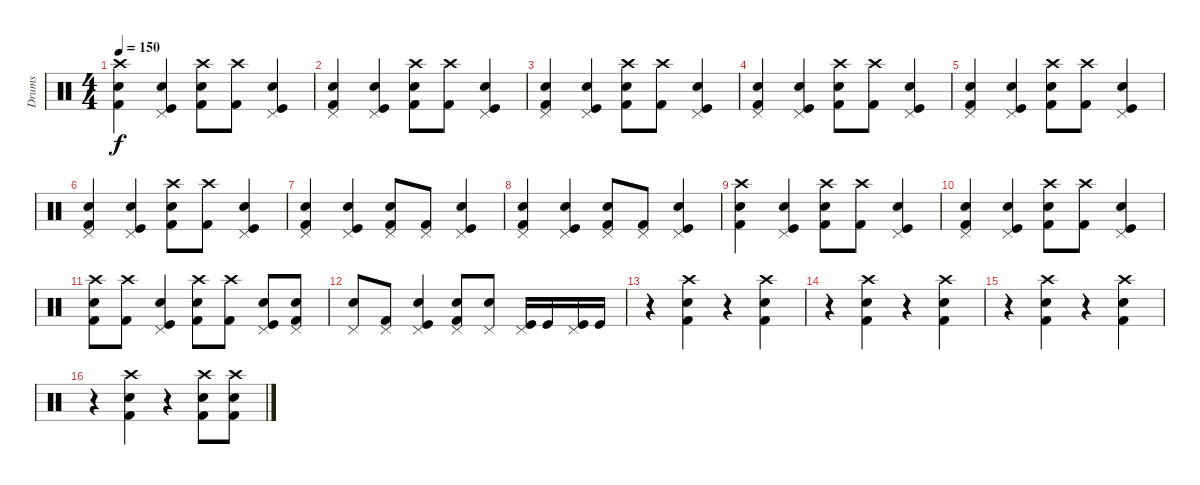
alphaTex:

\track ("Drums" "Drums") {instrument percussion}
\staff {score}
\articulation defaults
\ts (4 4)
\tempo 150
\clef neutral
\ks c
("Kick (hit) 2" "Electric Snare (hit)" "Crash high (hit)").4{dy f} ("Kick (hit)" "Electric Snare (hit)" "Pedal Hi-Hat (hit)").4 ("Kick (hit) 2" "Electric Snare (hit)" "Crash high (hit)").8 ("Kick (hit) 2" "Crash high (hit)").8 ("Kick (hit)" "Electric Snare (hit)" "Pedal Hi-Hat (hit)").4 |
("Kick (hit) 2" "Electric Snare (hit)" "Pedal Hi-Hat (hit)").4 ("Kick (hit)" "Electric Snare (hit)" "Pedal Hi-Hat (hit)").4 ("Kick (hit) 2" "Electric Snare (hit)" "Crash high (hit)").8 ("Kick (hit) 2" "Crash high (hit)").8 ("Kick (hit)" "Electric Snare (hit)" "Pedal Hi-Hat (hit)").4 |
("Kick (hit) 2" "Electric Snare (hit)" "Pedal Hi-Hat (hit)").4 ("Kick (hit)" "Electric Snare (hit)" "Pedal Hi-Hat (hit)").4 ("Kick (hit) 2" "Electric Snare (hit)" "Crash high (hit)").8 ("Kick (hit) 2" "Crash high (hit)").8 ("Kick (hit)" "Electric Snare (hit)" "Pedal Hi-Hat (hit)").4 |
("Kick (hit) 2" "Electric Snare (hit)" "Pedal Hi-Hat (hit)").4 ("Kick (hit)" "Electric Snare (hit)" "Pedal Hi-Hat (hit)").4 ("Kick (hit) 2" "Electric Snare (hit)" "Crash high (hit)").8 ("Kick (hit) 2" "Crash high (hit)").8 ("Kick (hit)" "Electric Snare (hit)" "Pedal Hi-Hat (hit)").4 |
("Kick (hit) 2" "Electric Snare (hit)" "Pedal Hi-Hat (hit)").4 ("Kick (hit)" "Electric Snare (hit)" "Pedal Hi-Hat (hit)").4 ("Kick (hit) 2" "Electric Snare (hit)" "Crash high (hit)").8 ("Kick (hit) 2" "Crash high (hit)").8 ("Kick (hit)" "Electric Snare (hit)" "Pedal Hi-Hat (hit)").4 |
("Kick (hit) 2" "Electric Snare (hit)" "Pedal Hi-Hat (hit)").4 ("Kick (hit)" "Electric Snare (hit)" "Pedal Hi-Hat (hit)").4 ("Kick (hit) 2" "Electric Snare (hit)" "Crash high (hit)").8 ("Kick (hit) 2" "Crash high (hit)").8 ("Kick (hit)" "Electric Snare (hit)" "Pedal Hi-Hat (hit)").4 |
("Kick (hit) 2" "Electric Snare (hit)" "Pedal Hi-Hat (hit)").4 ("Kick (hit)" "Electric Snare (hit)" "Pedal Hi-Hat (hit)").4 ("Kick (hit) 2" "Electric Snare (hit)" "Pedal Hi-Hat (hit)").8 ("Kick (hit) 2" "Pedal Hi-Hat (hit)").8 ("Kick (hit)" "Electric Snare (hit)" "Pedal Hi-Hat (hit)").4 |
("Kick (hit) 2" "Electric Snare (hit)" "Pedal Hi-Hat (hit)").4 ("Kick (hit)" "Electric Snare (hit)" "Pedal Hi-Hat (hit)").4 ("Kick (hit) 2" "Electric Snare (hit)" "Pedal Hi-Hat (hit)").8 ("Kick (hit) 2" "Pedal Hi-Hat (hit)").8 ("Kick (hit)" "Electric Snare (hit)" "Pedal Hi-Hat (hit)").4 |
("Kick (hit) 2" "Electric Snare (hit)" "Crash high (hit)").4 ("Kick (hit)" "Electric Snare (hit)" "Pedal Hi-Hat (hit)").4 ("Kick (hit) 2" "Electric Snare (hit)" "Crash high (hit)").8 ("Kick (hit) 2" "Crash high (hit)").8 ("Kick (hit)" "Electric Snare (hit)" "Pedal Hi-Hat (hit)").4 |
("Kick (hit) 2" "Electric Snare (hit)" "Pedal Hi-Hat (hit)").4 ("Kick (hit)" "Electric Snare (hit)" "Pedal Hi-Hat (hit)").4 ("Kick (hit) 2" "Electric Snare (hit)" "Crash high (hit)").8 ("Kick (hit) 2" "Crash high (hit)").8 ("Kick (hit)" "Electric Snare (hit)" "Pedal Hi-Hat (hit)").4 |
("Kick (hit) 2" "Electric Snare (hit)" "Crash high (hit)").8 ("Kick (hit) 2" "Crash high (hit)").8 ("Kick (hit)" "Electric Snare (hit)" "Pedal Hi-Hat (hit)").4 ("Kick (hit) 2" "Electric Snare (hit)" "Crash high (hit)").8 ("Kick (hit) 2" "Crash high (hit)").8 ("Kick (hit)" "Electric Snare (hit)" "Pedal Hi-Hat (hit)").8 ("Kick (hit) 2" "Electric Snare (hit)" "Pedal Hi-Hat (hit)").8 |
("Electric Snare (hit)" "Pedal Hi-Hat (hit)").8 ("Kick (hit) 2" "Pedal Hi-Hat (hit)").8 ("Kick (hit)" "Electric Snare (hit)" "Pedal Hi-Hat (hit)").4 ("Kick (hit) 2" "Electric Snare (hit)" "Pedal Hi-Hat (hit)").8 ("Electric Snare (hit)" "Pedal Hi-Hat (hit)").8 ("Kick (hit)" "Pedal Hi-Hat (hit)").16 "Kick (hit)".16 ("Kick (hit)" "Pedal Hi-Hat (hit)").16 "Kick (hit)".16 |
r.4 ("Kick (hit) 2" "Electric Snare (hit)" "Crash high (hit)").4 r.4 ("Kick (hit) 2" "Electric Snare (hit)" "Crash high (hit)").4 |
r.4 ("Kick (hit) 2" "Electric Snare (hit)" "Crash high (hit)").4 r.4 ("Kick (hit) 2" "Electric Snare (hit)" "Crash high (hit)").4 |
r.4 ("Kick (hit) 2" "Electric Snare (hit)" "Crash high (hit)").4 r.4 ("Kick (hit) 2" "Electric Snare (hit)" "Crash high (hit)").4 |
r.4 ("Kick (hit) 2" "Electric Snare (hit)" "Crash high (hit)").4 r.4 ("Kick (hit) 2" "Electric Snare (hit)" "Crash high (hit)").8 ("Kick (hit) 2" "Electric Snare (hit)" "Crash high (hit)").8
